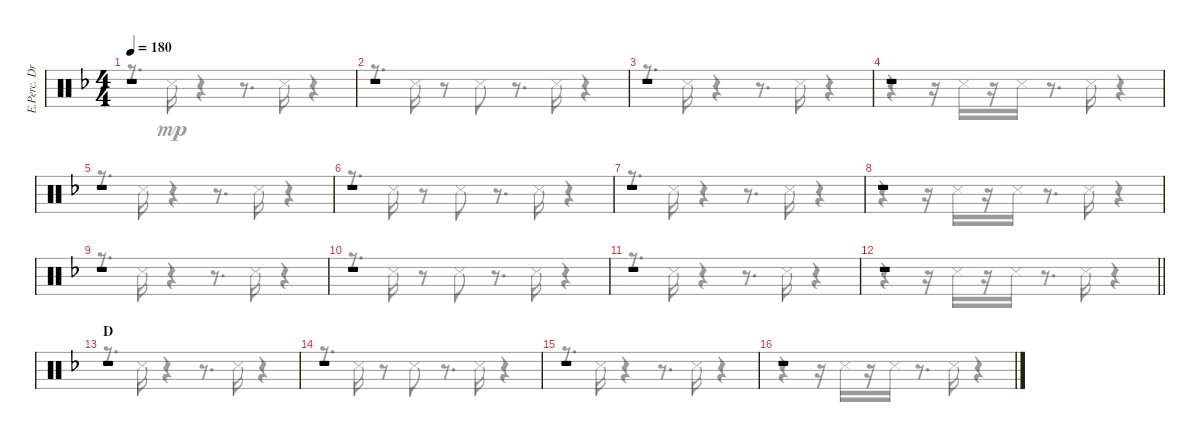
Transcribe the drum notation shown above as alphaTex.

\track ("E.Perc. Drums" "E.Perc. Dr") {instrument percussion}
\staff {score}
\articulation defaults
\voice
\ts (4 4)
\tempo 180
\clef neutral
\ks f
r.1{dy mp} |
r.1 |
r.1 |
r.1 |
r.1 |
r.1 |
r.1 |
r.1 |
r.1 |
r.1 |
r.1 |
\barLineRight lightlight
r.1 |
\section ("" "D")
r.1 |
r.1 |
r.1 |
r.1
\voice
\clef neutral
\ottava regular
\simile none
\ks f
r.8{d dy mp} "Snare (side stick) 3".16 r.4 r.8{d} "Snare (side stick) 3".16 r.4 |
r.8{d} "Snare (side stick) 3".16 r.8 "Snare (side stick) 3".8 r.8{d} "Snare (side stick) 3".16 r.4 |
r.8{d} "Snare (side stick) 3".16 r.4 r.8{d} "Snare (side stick) 3".16 r.4 |
r.4 r.16 "Snare (side stick) 3".16 r.16 "Snare (side stick) 3".16 r.8{d} "Snare (side stick) 3".16 r.4 |
r.8{d} "Snare (side stick) 3".16 r.4 r.8{d} "Snare (side stick) 3".16 r.4 |
r.8{d} "Snare (side stick) 3".16 r.8 "Snare (side stick) 3".8 r.8{d} "Snare (side stick) 3".16 r.4 |
r.8{d} "Snare (side stick) 3".16 r.4 r.8{d} "Snare (side stick) 3".16 r.4 |
r.4 r.16 "Snare (side stick) 3".16 r.16 "Snare (side stick) 3".16 r.8{d} "Snare (side stick) 3".16 r.4 |
r.8{d} "Snare (side stick) 3".16 r.4 r.8{d} "Snare (side stick) 3".16 r.4 |
r.8{d} "Snare (side stick) 3".16 r.8 "Snare (side stick) 3".8 r.8{d} "Snare (side stick) 3".16 r.4 |
r.8{d} "Snare (side stick) 3".16 r.4 r.8{d} "Snare (side stick) 3".16 r.4 |
\barLineRight lightlight
r.4 r.16 "Snare (side stick) 3".16 r.16 "Snare (side stick) 3".16 r.8{d} "Snare (side stick) 3".16 r.4 |
r.8{d} "Snare (side stick) 3".16 r.4 r.8{d} "Snare (side stick) 3".16 r.4 |
r.8{d} "Snare (side stick) 3".16 r.8 "Snare (side stick) 3".8 r.8{d} "Snare (side stick) 3".16 r.4 |
r.8{d} "Snare (side stick) 3".16 r.4 r.8{d} "Snare (side stick) 3".16 r.4 |
r.4 r.16 "Snare (side stick) 3".16 r.16 "Snare (side stick) 3".16 r.8{d} "Snare (side stick) 3".16 r.4
